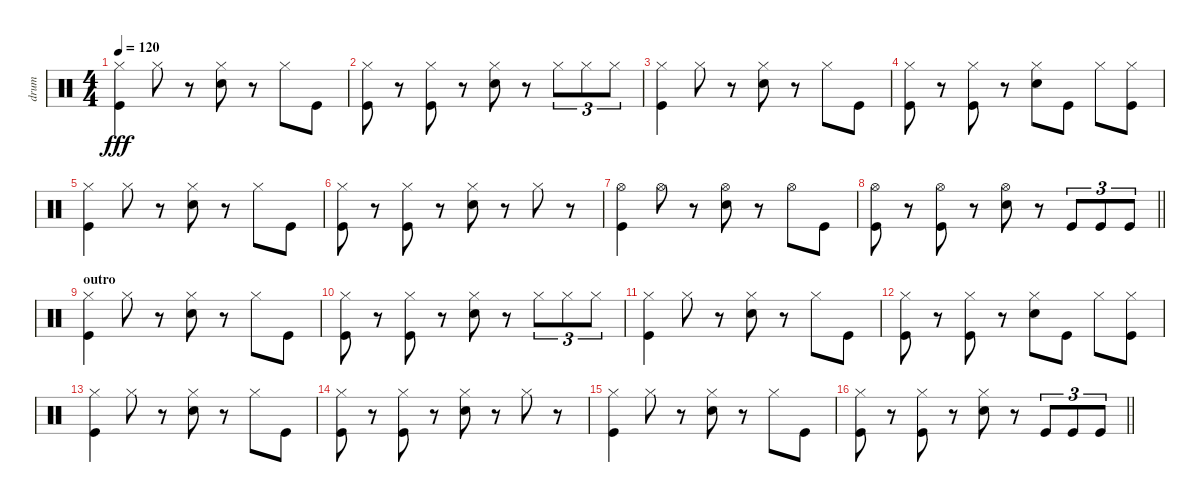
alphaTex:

\track ("drum" "drum") {instrument percussion}
\staff {score}
\articulation defaults
\ts (4 4)
\tempo 120
\clef neutral
\ks c
("Hi-Hat (closed)" "Kick (hit)").4{dy fff} "Hi-Hat (closed)".8 r.8 ("Hi-Hat (closed)" "Hand Clap (hit)").8 r.8 "Hi-Hat (closed)".8 "Kick (hit)".8 |
("Hi-Hat (closed)" "Kick (hit)").8 r.8 ("Hi-Hat (closed)" "Kick (hit)").8 r.8 ("Hi-Hat (closed)" "Hand Clap (hit)").8 r.8 "Hi-Hat (closed)".8{tu (3 2)} "Hi-Hat (closed)".8{tu (3 2)} "Hi-Hat (closed)".8{tu (3 2)} |
("Hi-Hat (closed)" "Kick (hit)").4 "Hi-Hat (closed)".8 r.8 ("Hi-Hat (closed)" "Hand Clap (hit)").8 r.8 "Hi-Hat (closed)".8 "Kick (hit)".8 |
("Hi-Hat (closed)" "Kick (hit)").8 r.8 ("Hi-Hat (closed)" "Kick (hit)").8 r.8 ("Hi-Hat (closed)" "Hand Clap (hit)").8 "Kick (hit)".8 "Hi-Hat (closed)".8 ("Hi-Hat (closed)" "Kick (hit)").8 |
("Hi-Hat (closed)" "Kick (hit)").4 "Hi-Hat (closed)".8 r.8 ("Hi-Hat (closed)" "Hand Clap (hit)").8 r.8 "Hi-Hat (closed)".8 "Kick (hit)".8 |
("Hi-Hat (closed)" "Kick (hit)").8 r.8 ("Hi-Hat (closed)" "Kick (hit)").8 r.8 ("Hi-Hat (closed)" "Hand Clap (hit)").8 r.8 "Hi-Hat (closed)".8 r.8 |
("Hi-Hat (open)" "Kick (hit)").4 "Hi-Hat (open)".8 r.8 ("Hi-Hat (open)" "Hand Clap (hit)").8 r.8 "Hi-Hat (open)".8 "Kick (hit)".8 |
\barLineRight lightlight
("Hi-Hat (open)" "Kick (hit)").8 r.8 ("Hi-Hat (open)" "Kick (hit)").8 r.8 ("Hi-Hat (open)" "Hand Clap (hit)").8 r.8 "Kick (hit)".8{tu (3 2)} "Kick (hit)".8{tu (3 2)} "Kick (hit)".8{tu (3 2)} |
\section ("" "outro")
("Hi-Hat (closed)" "Kick (hit)").4 "Hi-Hat (closed)".8 r.8 ("Hi-Hat (closed)" "Hand Clap (hit)").8 r.8 "Hi-Hat (closed)".8 "Kick (hit)".8 |
("Hi-Hat (closed)" "Kick (hit)").8 r.8 ("Hi-Hat (closed)" "Kick (hit)").8 r.8 ("Hi-Hat (closed)" "Hand Clap (hit)").8 r.8 "Hi-Hat (closed)".8{tu (3 2)} "Hi-Hat (closed)".8{tu (3 2)} "Hi-Hat (closed)".8{tu (3 2)} |
("Hi-Hat (closed)" "Kick (hit)").4 "Hi-Hat (closed)".8 r.8 ("Hi-Hat (closed)" "Hand Clap (hit)").8 r.8 "Hi-Hat (closed)".8 "Kick (hit)".8 |
("Hi-Hat (closed)" "Kick (hit)").8 r.8 ("Hi-Hat (closed)" "Kick (hit)").8 r.8 ("Hi-Hat (closed)" "Hand Clap (hit)").8 "Kick (hit)".8 "Hi-Hat (closed)".8 ("Hi-Hat (closed)" "Kick (hit)").8 |
("Hi-Hat (closed)" "Kick (hit)").4 "Hi-Hat (closed)".8 r.8 ("Hi-Hat (closed)" "Hand Clap (hit)").8 r.8 "Hi-Hat (closed)".8 "Kick (hit)".8 |
("Hi-Hat (closed)" "Kick (hit)").8 r.8 ("Hi-Hat (closed)" "Kick (hit)").8 r.8 ("Hi-Hat (closed)" "Hand Clap (hit)").8 r.8 "Hi-Hat (closed)".8 r.8 |
("Hi-Hat (closed)" "Kick (hit)").4 "Hi-Hat (closed)".8 r.8 ("Hi-Hat (closed)" "Hand Clap (hit)").8 r.8 "Hi-Hat (closed)".8 "Kick (hit)".8 |
\barLineRight lightlight
("Hi-Hat (closed)" "Kick (hit)").8 r.8 ("Hi-Hat (closed)" "Kick (hit)").8 r.8 ("Hi-Hat (closed)" "Hand Clap (hit)").8 r.8 "Kick (hit)".8{tu (3 2)} "Kick (hit)".8{tu (3 2)} "Kick (hit)".8{tu (3 2)}
